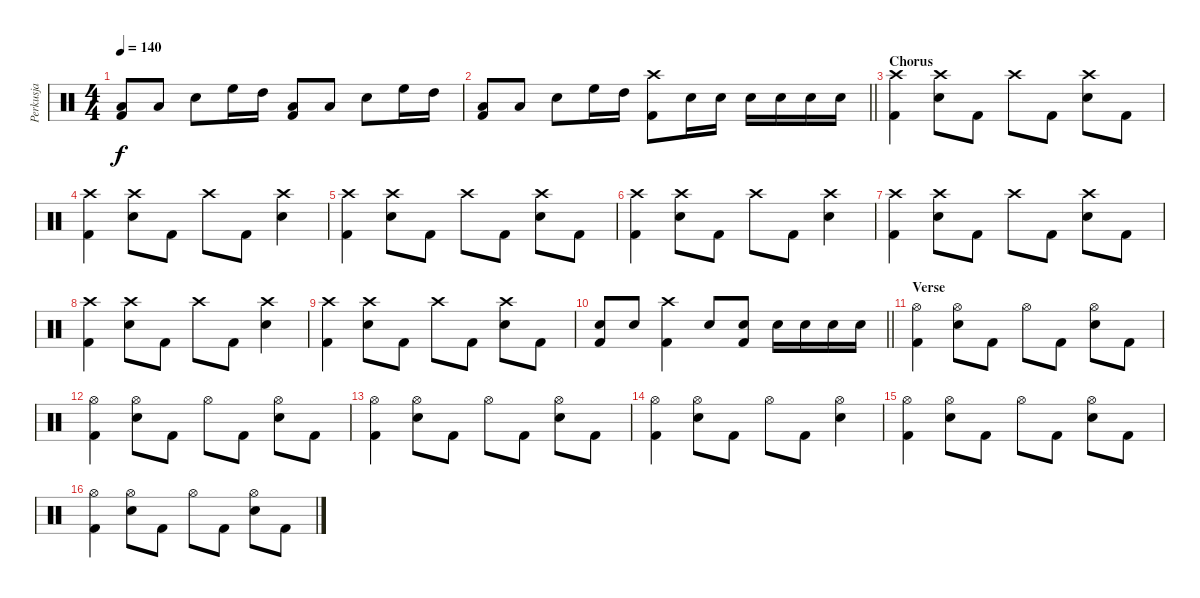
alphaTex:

\track ("Perkusja" "Perkusja") {instrument percussion}
\staff {score}
\articulation defaults
\ts (4 4)
\tempo 140
\clef neutral
\ks c
("Low Floor Tom (hit)" "Kick (hit) 2").8{dy f} "Low Floor Tom (hit)".8 "Snare (hit) 2".8 "High Floor Tom (hit)".16 "High Tom (hit)".16 ("Low Floor Tom (hit)" "Kick (hit) 2").8 "Low Floor Tom (hit)".8 "Snare (hit) 2".8 "High Floor Tom (hit)".16 "High Tom (hit)".16 |
\barLineRight lightlight
("Low Floor Tom (hit)" "Kick (hit) 2").8 "Low Floor Tom (hit)".8 "Snare (hit) 2".8 "High Floor Tom (hit)".16 "High Tom (hit)".16 ("Crash high (hit)" "Kick (hit) 2").8 "Snare (hit) 2".16 "Snare (hit) 2".16 "Snare (hit) 2".16 "Snare (hit) 2".16 "Snare (hit) 2".16 "Snare (hit) 2".16 |
\section ("" "Chorus")
("Crash high (hit)" "Kick (hit) 2").4 ("Crash high (hit)" "Snare (hit) 2").8 "Kick (hit) 2".8 "Crash high (hit)".8 "Kick (hit) 2".8 ("Crash high (hit)" "Snare (hit) 2").8 "Kick (hit) 2".8 |
("Crash high (hit)" "Kick (hit) 2").4 ("Crash high (hit)" "Snare (hit) 2").8 "Kick (hit) 2".8 "Crash high (hit)".8 "Kick (hit) 2".8 ("Crash high (hit)" "Snare (hit) 2").4 |
("Crash high (hit)" "Kick (hit) 2").4 ("Crash high (hit)" "Snare (hit) 2").8 "Kick (hit) 2".8 "Crash high (hit)".8 "Kick (hit) 2".8 ("Crash high (hit)" "Snare (hit) 2").8 "Kick (hit) 2".8 |
("Crash high (hit)" "Kick (hit) 2").4 ("Crash high (hit)" "Snare (hit) 2").8 "Kick (hit) 2".8 "Crash high (hit)".8 "Kick (hit) 2".8 ("Crash high (hit)" "Snare (hit) 2").4 |
("Crash high (hit)" "Kick (hit) 2").4 ("Crash high (hit)" "Snare (hit) 2").8 "Kick (hit) 2".8 "Crash high (hit)".8 "Kick (hit) 2".8 ("Crash high (hit)" "Snare (hit) 2").8 "Kick (hit) 2".8 |
("Crash high (hit)" "Kick (hit) 2").4 ("Crash high (hit)" "Snare (hit) 2").8 "Kick (hit) 2".8 "Crash high (hit)".8 "Kick (hit) 2".8 ("Crash high (hit)" "Snare (hit) 2").4 |
("Crash high (hit)" "Kick (hit) 2").4 ("Crash high (hit)" "Snare (hit) 2").8 "Kick (hit) 2".8 "Crash high (hit)".8 "Kick (hit) 2".8 ("Crash high (hit)" "Snare (hit) 2").8 "Kick (hit) 2".8 |
\barLineRight lightlight
("Snare (hit) 2" "Kick (hit) 2").8 "Snare (hit) 2".8 ("Crash high (hit)" "Kick (hit) 2").4 "Snare (hit) 2".8 ("Snare (hit) 2" "Kick (hit) 2").8 "Snare (hit) 2".16 "Snare (hit) 2".16 "Snare (hit) 2".16 "Snare (hit) 2".16 |
\section ("" "Verse")
("Hi-Hat (open)" "Kick (hit) 2").4 ("Hi-Hat (open)" "Snare (hit) 2").8 "Kick (hit) 2".8 "Hi-Hat (open)".8 "Kick (hit) 2".8 ("Hi-Hat (open)" "Snare (hit) 2").8 "Kick (hit) 2".8 |
("Hi-Hat (open)" "Kick (hit) 2").4 ("Hi-Hat (open)" "Snare (hit) 2").8 "Kick (hit) 2".8 "Hi-Hat (open)".8 "Kick (hit) 2".8 ("Hi-Hat (open)" "Snare (hit) 2").8 "Kick (hit) 2".8 |
("Hi-Hat (open)" "Kick (hit) 2").4 ("Hi-Hat (open)" "Snare (hit) 2").8 "Kick (hit) 2".8 "Hi-Hat (open)".8 "Kick (hit) 2".8 ("Hi-Hat (open)" "Snare (hit) 2").8 "Kick (hit) 2".8 |
("Hi-Hat (open)" "Kick (hit) 2").4 ("Hi-Hat (open)" "Snare (hit) 2").8 "Kick (hit) 2".8 "Hi-Hat (open)".8 "Kick (hit) 2".8 ("Hi-Hat (open)" "Snare (hit) 2").4 |
("Hi-Hat (open)" "Kick (hit) 2").4 ("Hi-Hat (open)" "Snare (hit) 2").8 "Kick (hit) 2".8 "Hi-Hat (open)".8 "Kick (hit) 2".8 ("Hi-Hat (open)" "Snare (hit) 2").8 "Kick (hit) 2".8 |
("Hi-Hat (open)" "Kick (hit) 2").4 ("Hi-Hat (open)" "Snare (hit) 2").8 "Kick (hit) 2".8 "Hi-Hat (open)".8 "Kick (hit) 2".8 ("Hi-Hat (open)" "Snare (hit) 2").8 "Kick (hit) 2".8
